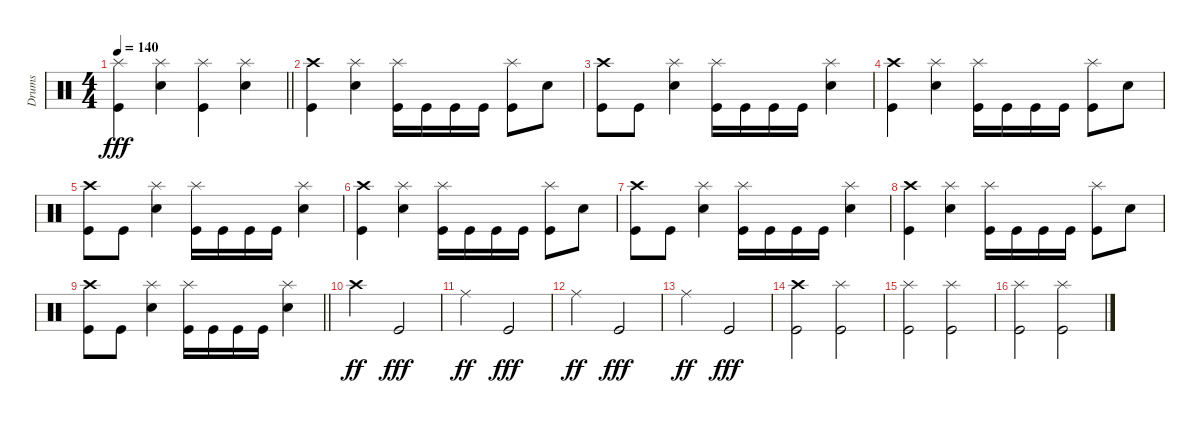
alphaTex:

\track ("Drums" "Drums") {instrument percussion}
\staff {score}
\articulation defaults
\ts (4 4)
\tempo 140
\clef neutral
\barLineRight lightlight
\ks c
("Splash (hit)" "Kick (hit)").4{dy fff} ("Splash (hit)" "Electric Snare (hit)").4 ("Splash (hit)" "Kick (hit)").4 ("Splash (hit)" "Electric Snare (hit)").4 |
("Crash high (hit)" "Kick (hit)").4 ("Splash (hit)" "Electric Snare (hit)").4 ("Splash (hit)" "Kick (hit)").16 "Kick (hit)".16 "Kick (hit)".16 "Kick (hit)".16 ("Splash (hit)" "Kick (hit)").8 "Electric Snare (hit)".8 |
("Crash high (hit)" "Kick (hit)").8 "Kick (hit)".8 ("Splash (hit)" "Electric Snare (hit)").4 ("Splash (hit)" "Kick (hit)").16 "Kick (hit)".16 "Kick (hit)".16 "Kick (hit)".16 ("Splash (hit)" "Electric Snare (hit)").4 |
("Crash high (hit)" "Kick (hit)").4 ("Splash (hit)" "Electric Snare (hit)").4 ("Splash (hit)" "Kick (hit)").16 "Kick (hit)".16 "Kick (hit)".16 "Kick (hit)".16 ("Splash (hit)" "Kick (hit)").8 "Electric Snare (hit)".8 |
("Crash high (hit)" "Kick (hit)").8 "Kick (hit)".8 ("Splash (hit)" "Electric Snare (hit)").4 ("Splash (hit)" "Kick (hit)").16 "Kick (hit)".16 "Kick (hit)".16 "Kick (hit)".16 ("Splash (hit)" "Electric Snare (hit)").4 |
("Crash high (hit)" "Kick (hit)").4 ("Splash (hit)" "Electric Snare (hit)").4 ("Splash (hit)" "Kick (hit)").16 "Kick (hit)".16 "Kick (hit)".16 "Kick (hit)".16 ("Splash (hit)" "Kick (hit)").8 "Electric Snare (hit)".8 |
("Crash high (hit)" "Kick (hit)").8 "Kick (hit)".8 ("Splash (hit)" "Electric Snare (hit)").4 ("Splash (hit)" "Kick (hit)").16 "Kick (hit)".16 "Kick (hit)".16 "Kick (hit)".16 ("Splash (hit)" "Electric Snare (hit)").4 |
("Crash high (hit)" "Kick (hit)").4 ("Splash (hit)" "Electric Snare (hit)").4 ("Splash (hit)" "Kick (hit)").16 "Kick (hit)".16 "Kick (hit)".16 "Kick (hit)".16 ("Splash (hit)" "Kick (hit)").8 "Electric Snare (hit)".8 |
\barLineRight lightlight
("Crash high (hit)" "Kick (hit)").8 "Kick (hit)".8 ("Splash (hit)" "Electric Snare (hit)").4 ("Splash (hit)" "Kick (hit)").16 "Kick (hit)".16 "Kick (hit)".16 "Kick (hit)".16 ("Splash (hit)" "Electric Snare (hit)").4 |
"Crash high (hit)".2{dy ff} "Kick (hit)".2{dy fff} |
"Ride (middle)".2{dy ff} "Kick (hit)".2{dy fff} |
"Ride (middle)".2{dy ff} "Kick (hit)".2{dy fff} |
"Ride (middle)".2{dy ff} "Kick (hit)".2{dy fff} |
("Crash high (hit)" "Kick (hit)").2 ("Splash (hit)" "Kick (hit)").2 |
("Splash (hit)" "Kick (hit)").2 ("Splash (hit)" "Kick (hit)").2 |
("Splash (hit)" "Kick (hit)").2 ("Splash (hit)" "Kick (hit)").2
